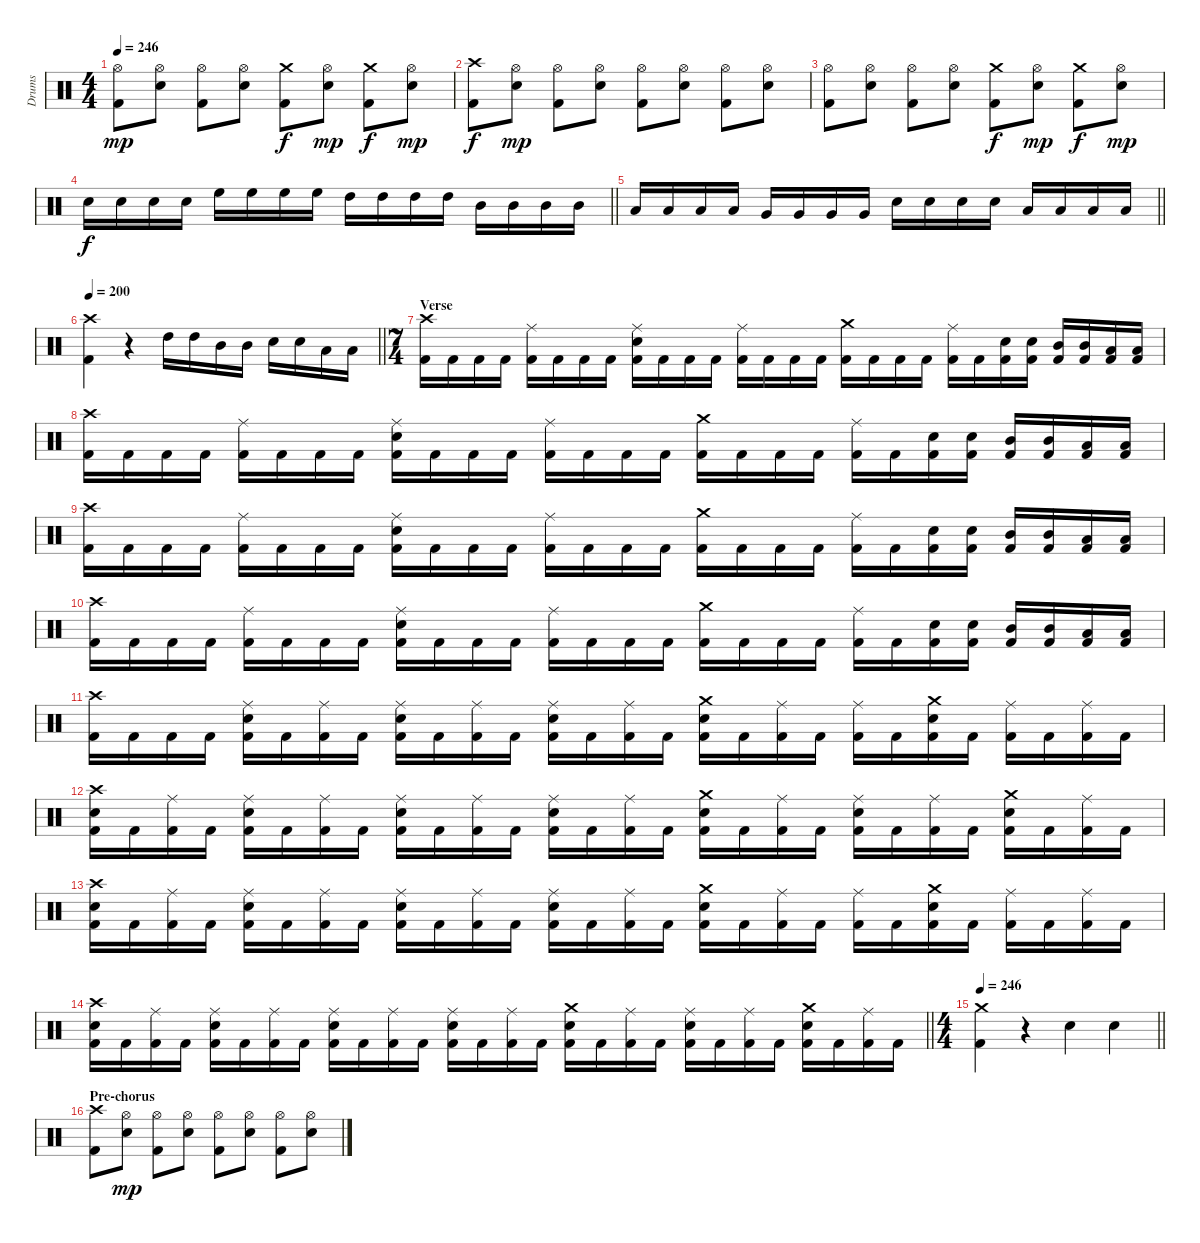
\track ("Drums" "Drums") {instrument percussion}
\staff {score}
\articulation defaults
\ts (4 4)
\tempo 246
\clef neutral
\ks c
("Hi-Hat (open)" "Kick (hit) 2").8{dy mp} ("Hi-Hat (open)" "Snare (hit) 2").8 ("Hi-Hat (open)" "Kick (hit) 2").8 ("Hi-Hat (open)" "Snare (hit) 2").8 ("Crash medium (hit)" "Kick (hit) 2").8{dy f} ("Hi-Hat (open)" "Snare (hit) 2").8{dy mp} ("Crash medium (hit)" "Kick (hit) 2").8{dy f} ("Hi-Hat (open)" "Snare (hit) 2").8{dy mp} |
("Crash high (hit)" "Kick (hit) 2").8{dy f} ("Hi-Hat (open)" "Snare (hit) 2").8{dy mp} ("Hi-Hat (open)" "Kick (hit) 2").8 ("Hi-Hat (open)" "Snare (hit) 2").8 ("Hi-Hat (open)" "Kick (hit) 2").8 ("Hi-Hat (open)" "Snare (hit) 2").8 ("Hi-Hat (open)" "Kick (hit) 2").8 ("Hi-Hat (open)" "Snare (hit) 2").8 |
("Hi-Hat (open)" "Kick (hit) 2").8 ("Hi-Hat (open)" "Snare (hit) 2").8 ("Hi-Hat (open)" "Kick (hit) 2").8 ("Hi-Hat (open)" "Snare (hit) 2").8 ("Crash medium (hit)" "Kick (hit) 2").8{dy f} ("Hi-Hat (open)" "Snare (hit) 2").8{dy mp} ("Crash medium (hit)" "Kick (hit) 2").8{dy f} ("Hi-Hat (open)" "Snare (hit) 2").8{dy mp} |
\barLineRight lightlight "Snare (hit) 2".16{dy f} "Snare (hit) 2".16 "Snare (hit) 2".16 "Snare (hit) 2".16 "High Floor Tom (hit)".16 "High Floor Tom (hit)".16 "High Floor Tom (hit)".16 "High Floor Tom (hit)".16 "High Tom (hit)".16 "High Tom (hit)".16 "High Tom (hit)".16 "High Tom (hit)".16 "Mid Tom (hit)".16 "Mid Tom (hit)".16 "Mid Tom (hit)".16 "Mid Tom (hit)".16
|
\barLineRight lightlight "Low Tom (hit)".16 "Low Tom (hit)".16 "Low Tom (hit)".16 "Low Tom (hit)".16 "Very Low Tom (hit)".16 "Very Low Tom (hit)".16 "Very Low Tom (hit)".16 "Very Low Tom (hit)".16 "Snare (hit) 2".16 "Snare (hit) 2".16 "Snare (hit) 2".16 "Snare (hit) 2".16 "Low Floor Tom (hit)".16 "Low Floor Tom (hit)".16 "Low Floor Tom (hit)".16 "Low Floor Tom (hit)".16
|
\section ("" "")
\tempo 200
\barLineRight lightlight
("Crash high (hit)" "Kick (hit) 2").4 r.4 "High Tom (hit)".16 "High Tom (hit)".16 "Mid Tom (hit)".16 "Mid Tom (hit)".16 "Snare (hit) 2".16 "Snare (hit) 2".16 "Low Tom (hit)".16 "Low Tom (hit)".16 |
\ts (7 4)
\section ("" "Verse")
("Crash high (hit)" "Kick (hit) 2").16 "Kick (hit) 2".16 "Kick (hit) 2".16 "Kick (hit) 2".16 ("Ride (middle)" "Kick (hit) 2").16 "Kick (hit) 2".16 "Kick (hit) 2".16 "Kick (hit) 2".16 ("Ride (middle)" "Snare (hit) 2" "Kick (hit) 2").16 "Kick (hit) 2".16 "Kick (hit) 2".16 "Kick (hit) 2".16 ("Ride (middle)" "Kick (hit) 2").16 "Kick (hit) 2".16 "Kick (hit) 2".16 "Kick (hit) 2".16 ("Crash medium (hit)" "Kick (hit) 2").16 "Kick (hit) 2".16 "Kick (hit) 2".16 "Kick (hit) 2".16 ("Ride (middle)" "Kick (hit) 2").16 "Kick (hit) 2".16 ("Snare (hit) 2" "Kick (hit) 2").16 ("Snare (hit) 2" "Kick (hit) 2").16 ("Mid Tom (hit)" "Kick (hit) 2").16 ("Mid Tom (hit)" "Kick (hit) 2").16 ("Low Tom (hit)" "Kick (hit) 2").16 ("Low Tom (hit)" "Kick (hit) 2").16 |
("Crash high (hit)" "Kick (hit) 2").16 "Kick (hit) 2".16 "Kick (hit) 2".16 "Kick (hit) 2".16 ("Ride (middle)" "Kick (hit) 2").16 "Kick (hit) 2".16 "Kick (hit) 2".16 "Kick (hit) 2".16 ("Ride (middle)" "Snare (hit) 2" "Kick (hit) 2").16 "Kick (hit) 2".16 "Kick (hit) 2".16 "Kick (hit) 2".16 ("Ride (middle)" "Kick (hit) 2").16 "Kick (hit) 2".16 "Kick (hit) 2".16 "Kick (hit) 2".16 ("Crash medium (hit)" "Kick (hit) 2").16 "Kick (hit) 2".16 "Kick (hit) 2".16 "Kick (hit) 2".16 ("Ride (middle)" "Kick (hit) 2").16 "Kick (hit) 2".16 ("Snare (hit) 2" "Kick (hit) 2").16 ("Snare (hit) 2" "Kick (hit) 2").16 ("Mid Tom (hit)" "Kick (hit) 2").16 ("Mid Tom (hit)" "Kick (hit) 2").16 ("Low Tom (hit)" "Kick (hit) 2").16 ("Low Tom (hit)" "Kick (hit) 2").16 |
("Crash high (hit)" "Kick (hit) 2").16 "Kick (hit) 2".16 "Kick (hit) 2".16 "Kick (hit) 2".16 ("Ride (middle)" "Kick (hit) 2").16 "Kick (hit) 2".16 "Kick (hit) 2".16 "Kick (hit) 2".16 ("Ride (middle)" "Snare (hit) 2" "Kick (hit) 2").16 "Kick (hit) 2".16 "Kick (hit) 2".16 "Kick (hit) 2".16 ("Ride (middle)" "Kick (hit) 2").16 "Kick (hit) 2".16 "Kick (hit) 2".16 "Kick (hit) 2".16 ("Crash medium (hit)" "Kick (hit) 2").16 "Kick (hit) 2".16 "Kick (hit) 2".16 "Kick (hit) 2".16 ("Ride (middle)" "Kick (hit) 2").16 "Kick (hit) 2".16 ("Snare (hit) 2" "Kick (hit) 2").16 ("Snare (hit) 2" "Kick (hit) 2").16 ("Mid Tom (hit)" "Kick (hit) 2").16 ("Mid Tom (hit)" "Kick (hit) 2").16 ("Low Tom (hit)" "Kick (hit) 2").16 ("Low Tom (hit)" "Kick (hit) 2").16 |
("Crash high (hit)" "Kick (hit) 2").16 "Kick (hit) 2".16 "Kick (hit) 2".16 "Kick (hit) 2".16 ("Ride (middle)" "Kick (hit) 2").16 "Kick (hit) 2".16 "Kick (hit) 2".16 "Kick (hit) 2".16 ("Ride (middle)" "Snare (hit) 2" "Kick (hit) 2").16 "Kick (hit) 2".16 "Kick (hit) 2".16 "Kick (hit) 2".16 ("Ride (middle)" "Kick (hit) 2").16 "Kick (hit) 2".16 "Kick (hit) 2".16 "Kick (hit) 2".16 ("Crash medium (hit)" "Kick (hit) 2").16 "Kick (hit) 2".16 "Kick (hit) 2".16 "Kick (hit) 2".16 ("Ride (middle)" "Kick (hit) 2").16 "Kick (hit) 2".16 ("Snare (hit) 2" "Kick (hit) 2").16 ("Snare (hit) 2" "Kick (hit) 2").16 ("Mid Tom (hit)" "Kick (hit) 2").16 ("Mid Tom (hit)" "Kick (hit) 2").16 ("Low Tom (hit)" "Kick (hit) 2").16 ("Low Tom (hit)" "Kick (hit) 2").16 |
("Crash high (hit)" "Kick (hit) 2").16 "Kick (hit) 2".16 "Kick (hit) 2".16 "Kick (hit) 2".16 ("Ride (middle)" "Snare (hit) 2" "Kick (hit) 2").16 "Kick (hit) 2".16 ("Ride (middle)" "Kick (hit) 2").16 "Kick (hit) 2".16 ("Ride (middle)" "Snare (hit) 2" "Kick (hit) 2").16 "Kick (hit) 2".16 ("Ride (middle)" "Kick (hit) 2").16 "Kick (hit) 2".16 ("Ride (middle)" "Snare (hit) 2" "Kick (hit) 2").16 "Kick (hit) 2".16 ("Ride (middle)" "Kick (hit) 2").16 "Kick (hit) 2".16 ("Crash medium (hit)" "Snare (hit) 2" "Kick (hit) 2").16 "Kick (hit) 2".16 ("Ride (middle)" "Kick (hit) 2").16 "Kick (hit) 2".16 ("Ride (middle)" "Kick (hit) 2").16 "Kick (hit) 2".16 ("Crash medium (hit)" "Snare (hit) 2" "Kick (hit) 2").16 "Kick (hit) 2".16 ("Ride (middle)" "Kick (hit) 2").16 "Kick (hit) 2".16 ("Ride (middle)" "Kick (hit) 2").16 "Kick (hit) 2".16 |
("Crash high (hit)" "Snare (hit) 2" "Kick (hit) 2").16 "Kick (hit) 2".16 ("Ride (middle)" "Kick (hit) 2").16 "Kick (hit) 2".16 ("Ride (middle)" "Snare (hit) 2" "Kick (hit) 2").16 "Kick (hit) 2".16 ("Ride (middle)" "Kick (hit) 2").16 "Kick (hit) 2".16 ("Ride (middle)" "Snare (hit) 2" "Kick (hit) 2").16 "Kick (hit) 2".16 ("Ride (middle)" "Kick (hit) 2").16 "Kick (hit) 2".16 ("Ride (middle)" "Snare (hit) 2" "Kick (hit) 2").16 "Kick (hit) 2".16 ("Ride (middle)" "Kick (hit) 2").16 "Kick (hit) 2".16 ("Crash medium (hit)" "Snare (hit) 2" "Kick (hit) 2").16 "Kick (hit) 2".16 ("Ride (middle)" "Kick (hit) 2").16 "Kick (hit) 2".16 ("Ride (middle)" "Snare (hit) 2" "Kick (hit) 2").16 "Kick (hit) 2".16 ("Ride (middle)" "Kick (hit) 2").16 "Kick (hit) 2".16 ("Crash medium (hit)" "Snare (hit) 2" "Kick (hit) 2").16 "Kick (hit) 2".16 ("Ride (middle)" "Kick (hit) 2").16 "Kick (hit) 2".16 |
("Crash high (hit)" "Snare (hit) 2" "Kick (hit) 2").16 "Kick (hit) 2".16 ("Ride (middle)" "Kick (hit) 2").16 "Kick (hit) 2".16 ("Ride (middle)" "Snare (hit) 2" "Kick (hit) 2").16 "Kick (hit) 2".16 ("Ride (middle)" "Kick (hit) 2").16 "Kick (hit) 2".16 ("Ride (middle)" "Snare (hit) 2" "Kick (hit) 2").16 "Kick (hit) 2".16 ("Ride (middle)" "Kick (hit) 2").16 "Kick (hit) 2".16 ("Ride (middle)" "Snare (hit) 2" "Kick (hit) 2").16 "Kick (hit) 2".16 ("Ride (middle)" "Kick (hit) 2").16 "Kick (hit) 2".16 ("Crash medium (hit)" "Snare (hit) 2" "Kick (hit) 2").16 "Kick (hit) 2".16 ("Ride (middle)" "Kick (hit) 2").16 "Kick (hit) 2".16 ("Ride (middle)" "Kick (hit) 2").16 "Kick (hit) 2".16 ("Crash medium (hit)" "Snare (hit) 2" "Kick (hit) 2").16 "Kick (hit) 2".16 ("Ride (middle)" "Kick (hit) 2").16 "Kick (hit) 2".16 ("Ride (middle)" "Kick (hit) 2").16 "Kick (hit) 2".16 |
\barLineRight lightlight
("Crash high (hit)" "Snare (hit) 2" "Kick (hit) 2").16 "Kick (hit) 2".16 ("Ride (middle)" "Kick (hit) 2").16 "Kick (hit) 2".16 ("Ride (middle)" "Snare (hit) 2" "Kick (hit) 2").16 "Kick (hit) 2".16 ("Ride (middle)" "Kick (hit) 2").16 "Kick (hit) 2".16 ("Ride (middle)" "Snare (hit) 2" "Kick (hit) 2").16 "Kick (hit) 2".16 ("Ride (middle)" "Kick (hit) 2").16 "Kick (hit) 2".16 ("Ride (middle)" "Snare (hit) 2" "Kick (hit) 2").16 "Kick (hit) 2".16 ("Ride (middle)" "Kick (hit) 2").16 "Kick (hit) 2".16 ("Crash medium (hit)" "Snare (hit) 2" "Kick (hit) 2").16 "Kick (hit) 2".16 ("Ride (middle)" "Kick (hit) 2").16 "Kick (hit) 2".16 ("Ride (middle)" "Snare (hit) 2" "Kick (hit) 2").16 "Kick (hit) 2".16 ("Ride (middle)" "Kick (hit) 2").16 "Kick (hit) 2".16 ("Crash medium (hit)" "Snare (hit) 2" "Kick (hit) 2").16 "Kick (hit) 2".16 ("Ride (middle)" "Kick (hit) 2").16 "Kick (hit) 2".16 |
\ts (4 4)
\section ("" "")
\tempo 246
\barLineRight lightlight
("Crash medium (hit)" "Kick (hit) 2").4 r.4 "Snare (hit) 2".4 "Snare (hit) 2".4 |
\section ("" "Pre-chorus")
("Crash high (hit)" "Kick (hit) 2").8 ("Hi-Hat (open)" "Snare (hit) 2").8{dy mp} ("Hi-Hat (open)" "Kick (hit) 2").8 ("Hi-Hat (open)" "Snare (hit) 2").8 ("Hi-Hat (open)" "Kick (hit) 2").8 ("Hi-Hat (open)" "Snare (hit) 2").8 ("Hi-Hat (open)" "Kick (hit) 2").8 ("Hi-Hat (open)" "Snare (hit) 2").8
